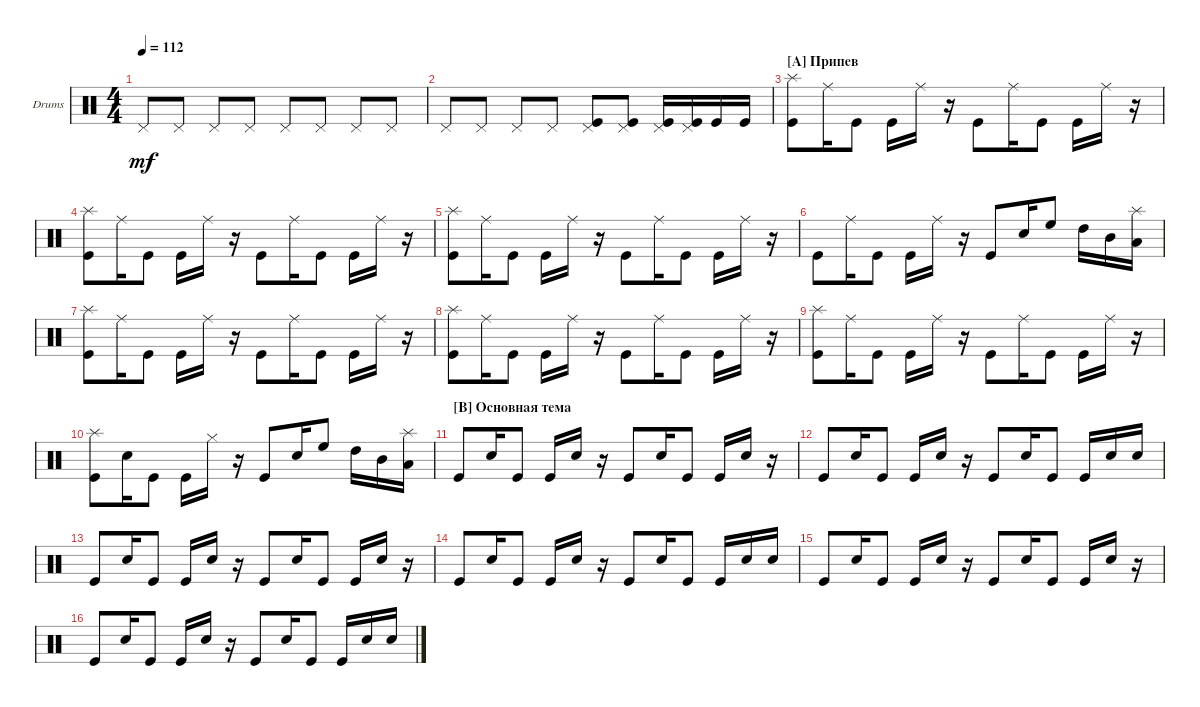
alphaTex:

\defaultSystemsLayout 4
\bracketExtendMode groupsimilarinstruments
\firstSystemTrackNameOrientation horizontal
\otherSystemsTrackNameOrientation horizontal
\track ("Drumkit" "Drums") {instrument percussion}
\staff {score}
\articulation defaults
\ts (4 4)
\tempo 112
\clef neutral
\scale
0.333333
\ks c "Pedal Hi-Hat (hit)".8{dy mf} "Pedal Hi-Hat (hit)".8 "Pedal Hi-Hat (hit)".8 "Pedal Hi-Hat (hit)".8 "Pedal Hi-Hat (hit)".8 "Pedal Hi-Hat (hit)".8 "Pedal Hi-Hat (hit)".8 "Pedal Hi-Hat (hit)".8
|
\scale
0.333333 "Pedal Hi-Hat (hit)".8 "Pedal Hi-Hat (hit)".8 "Pedal Hi-Hat (hit)".8 "Pedal Hi-Hat (hit)".8 ("Pedal Hi-Hat (hit)" "Kick (hit)").8 ("Pedal Hi-Hat (hit)" "Kick (hit)").8 ("Pedal Hi-Hat (hit)" "Kick (hit)").16 ("Pedal Hi-Hat (hit)" "Kick (hit)").16 "Kick (hit)".16 "Kick (hit)".16 |
\section ("A" "Припев")
\scale
0.333333 ("Kick (hit)" "Splash (hit)").8 "Ride (middle)".16 "Kick (hit)".8 "Kick (hit)".16 "Ride (middle)".16 r.16 "Kick (hit)".8 "Ride (middle)".16 "Kick (hit)".8 "Kick (hit)".16 "Ride (middle)".16 r.16 |
\scale
0.333333 ("Kick (hit)" "Splash (hit)").8 "Ride (middle)".16 "Kick (hit)".8 "Kick (hit)".16 "Ride (middle)".16 r.16 "Kick (hit)".8 "Ride (middle)".16 "Kick (hit)".8 "Kick (hit)".16 "Ride (middle)".16 r.16 |
\scale
0.333333 ("Kick (hit)" "Splash (hit)").8 "Ride (middle)".16 "Kick (hit)".8 "Kick (hit)".16 "Ride (middle)".16 r.16 "Kick (hit)".8 "Ride (middle)".16 "Kick (hit)".8 "Kick (hit)".16 "Ride (middle)".16 r.16 |
\scale
0.333333 "Kick (hit)".8 "Ride (middle)".16 "Kick (hit)".8 "Kick (hit)".16 "Ride (middle)".16 r.16 "Kick (hit)".8 "Snare (hit) 2".16 "High Floor Tom (hit)".8 "High Tom (hit)".16 "Mid Tom (hit)".16 ("Low Tom (hit)" "Splash (hit)").16 |
\scale
0.333333 ("Kick (hit)" "Splash (hit)").8 "Ride (middle)".16 "Kick (hit)".8 "Kick (hit)".16 "Ride (middle)".16 r.16 "Kick (hit)".8 "Ride (middle)".16 "Kick (hit)".8 "Kick (hit)".16 "Ride (middle)".16 r.16 |
\scale
0.333333 ("Kick (hit)" "Splash (hit)").8 "Ride (middle)".16 "Kick (hit)".8 "Kick (hit)".16 "Ride (middle)".16 r.16 "Kick (hit)".8 "Ride (middle)".16 "Kick (hit)".8 "Kick (hit)".16 "Ride (middle)".16 r.16 |
("Kick (hit)" "Splash (hit)").8 "Ride (middle)".16 "Kick (hit)".8 "Kick (hit)".16 "Ride (middle)".16 r.16 "Kick (hit)".8 "Ride (middle)".16 "Kick (hit)".8 "Kick (hit)".16 "Ride (middle)".16 r.16 |
("Kick (hit)" "Splash (hit)").8 "Snare (hit) 2".16 "Kick (hit)".8 "Kick (hit)".16 "Hi-Hat (closed)".16 r.16 "Kick (hit)".8 "Snare (hit) 2".16 "High Floor Tom (hit)".8 "High Tom (hit)".16 "Mid Tom (hit)".16 ("Low Tom (hit)" "Splash (hit)").16 |
\section ("B" "Основная тема")
"Kick (hit)".8 "Snare (hit) 2".16 "Kick (hit)".8 "Kick (hit)".16 "Snare (hit) 2".16 r.16 "Kick (hit)".8 "Snare (hit) 2".16 "Kick (hit)".8 "Kick (hit)".16 "Snare (hit) 2".16 r.16 |
"Kick (hit)".8 "Snare (hit) 2".16 "Kick (hit)".8 "Kick (hit)".16 "Snare (hit) 2".16 r.16 "Kick (hit)".8 "Snare (hit) 2".16 "Kick (hit)".8 "Kick (hit)".16 "Snare (hit) 2".16 "Snare (hit) 2".16 |
"Kick (hit)".8 "Snare (hit) 2".16 "Kick (hit)".8 "Kick (hit)".16 "Snare (hit) 2".16 r.16 "Kick (hit)".8 "Snare (hit) 2".16 "Kick (hit)".8 "Kick (hit)".16 "Snare (hit) 2".16 r.16 |
"Kick (hit)".8 "Snare (hit) 2".16 "Kick (hit)".8 "Kick (hit)".16 "Snare (hit) 2".16 r.16 "Kick (hit)".8 "Snare (hit) 2".16 "Kick (hit)".8 "Kick (hit)".16 "Snare (hit) 2".16 "Snare (hit) 2".16 |
"Kick (hit)".8 "Snare (hit) 2".16 "Kick (hit)".8 "Kick (hit)".16 "Snare (hit) 2".16 r.16 "Kick (hit)".8 "Snare (hit) 2".16 "Kick (hit)".8 "Kick (hit)".16 "Snare (hit) 2".16 r.16 |
"Kick (hit)".8 "Snare (hit) 2".16 "Kick (hit)".8 "Kick (hit)".16 "Snare (hit) 2".16 r.16 "Kick (hit)".8 "Snare (hit) 2".16 "Kick (hit)".8 "Kick (hit)".16 "Snare (hit) 2".16 "Snare (hit) 2".16
